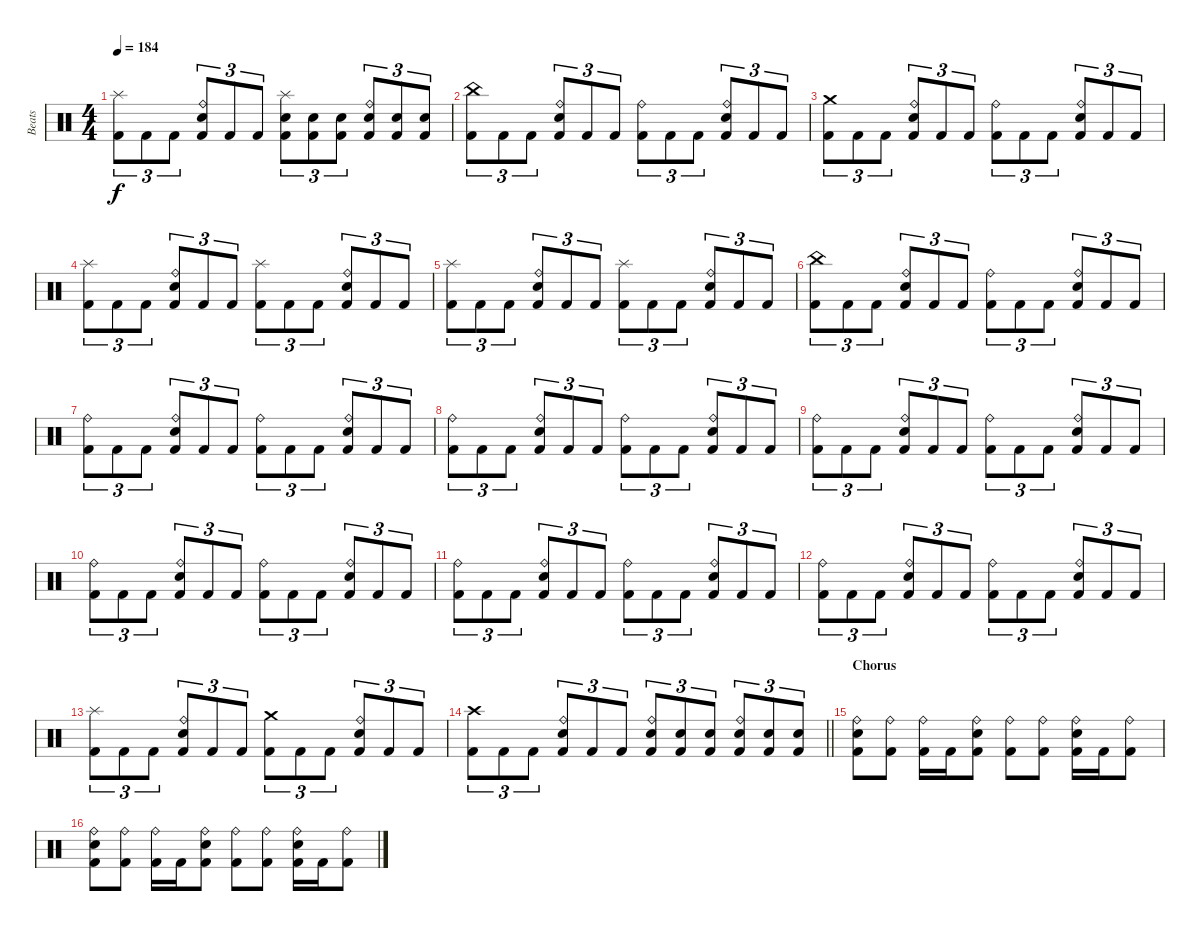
\track ("Beats" "Beats") {instrument percussion}
\staff {score}
\articulation defaults
\ts (4 4)
\tempo 184
\clef neutral
\ks c
("Splash (hit)" "Kick (hit) 2").8{tu (3 2) dy f} "Kick (hit) 2".8{tu (3 2)} "Kick (hit) 2".8{tu (3 2)} ("Ride (bell)" "Electric Snare (hit)" "Kick (hit) 2").8{tu (3 2)} "Kick (hit) 2".8{tu (3 2)} "Kick (hit) 2".8{tu (3 2)} ("Splash (hit)" "Electric Snare (hit)" "Kick (hit) 2").8{tu (3 2)} ("Electric Snare (hit)" "Kick (hit) 2").8{tu (3 2)} ("Electric Snare (hit)" "Kick (hit) 2").8{tu (3 2)} ("Ride (bell)" "Electric Snare (hit)" "Kick (hit) 2").8{tu (3 2)} ("Electric Snare (hit)" "Kick (hit) 2").8{tu (3 2)} ("Electric Snare (hit)" "Kick (hit) 2").8{tu (3 2)} |
("China (hit)" "Kick (hit) 2").8{tu (3 2)} "Kick (hit) 2".8{tu (3 2)} "Kick (hit) 2".8{tu (3 2)} ("Ride (bell)" "Electric Snare (hit)" "Kick (hit) 2").8{tu (3 2)} "Kick (hit) 2".8{tu (3 2)} "Kick (hit) 2".8{tu (3 2)} ("Ride (bell)" "Kick (hit) 2").8{tu (3 2)} "Kick (hit) 2".8{tu (3 2)} "Kick (hit) 2".8{tu (3 2)} ("Ride (bell)" "Electric Snare (hit)" "Kick (hit) 2").8{tu (3 2)} "Kick (hit) 2".8{tu (3 2)} "Kick (hit) 2".8{tu (3 2)} |
("Crash medium (hit)" "Kick (hit) 2").8{tu (3 2)} "Kick (hit) 2".8{tu (3 2)} "Kick (hit) 2".8{tu (3 2)} ("Ride (bell)" "Electric Snare (hit)" "Kick (hit) 2").8{tu (3 2)} "Kick (hit) 2".8{tu (3 2)} "Kick (hit) 2".8{tu (3 2)} ("Ride (bell)" "Kick (hit) 2").8{tu (3 2)} "Kick (hit) 2".8{tu (3 2)} "Kick (hit) 2".8{tu (3 2)} ("Ride (bell)" "Electric Snare (hit)" "Kick (hit) 2").8{tu (3 2)} "Kick (hit) 2".8{tu (3 2)} "Kick (hit) 2".8{tu (3 2)} |
("Splash (hit)" "Kick (hit) 2").8{tu (3 2)} "Kick (hit) 2".8{tu (3 2)} "Kick (hit) 2".8{tu (3 2)} ("Ride (bell)" "Electric Snare (hit)" "Kick (hit) 2").8{tu (3 2)} "Kick (hit) 2".8{tu (3 2)} "Kick (hit) 2".8{tu (3 2)} ("Splash (hit)" "Kick (hit) 2").8{tu (3 2)} "Kick (hit) 2".8{tu (3 2)} "Kick (hit) 2".8{tu (3 2)} ("Ride (bell)" "Electric Snare (hit)" "Kick (hit) 2").8{tu (3 2)} "Kick (hit) 2".8{tu (3 2)} "Kick (hit) 2".8{tu (3 2)} |
("Splash (hit)" "Kick (hit) 2").8{tu (3 2)} "Kick (hit) 2".8{tu (3 2)} "Kick (hit) 2".8{tu (3 2)} ("Ride (bell)" "Electric Snare (hit)" "Kick (hit) 2").8{tu (3 2)} "Kick (hit) 2".8{tu (3 2)} "Kick (hit) 2".8{tu (3 2)} ("Splash (hit)" "Kick (hit) 2").8{tu (3 2)} "Kick (hit) 2".8{tu (3 2)} "Kick (hit) 2".8{tu (3 2)} ("Ride (bell)" "Electric Snare (hit)" "Kick (hit) 2").8{tu (3 2)} "Kick (hit) 2".8{tu (3 2)} "Kick (hit) 2".8{tu (3 2)} |
("China (hit)" "Kick (hit) 2").8{tu (3 2)} "Kick (hit) 2".8{tu (3 2)} "Kick (hit) 2".8{tu (3 2)} ("Ride (bell)" "Electric Snare (hit)" "Kick (hit) 2").8{tu (3 2)} "Kick (hit) 2".8{tu (3 2)} "Kick (hit) 2".8{tu (3 2)} ("Ride (bell)" "Kick (hit) 2").8{tu (3 2)} "Kick (hit) 2".8{tu (3 2)} "Kick (hit) 2".8{tu (3 2)} ("Ride (bell)" "Electric Snare (hit)" "Kick (hit) 2").8{tu (3 2)} "Kick (hit) 2".8{tu (3 2)} "Kick (hit) 2".8{tu (3 2)} |
("Ride (bell)" "Kick (hit) 2").8{tu (3 2)} "Kick (hit) 2".8{tu (3 2)} "Kick (hit) 2".8{tu (3 2)} ("Ride (bell)" "Electric Snare (hit)" "Kick (hit) 2").8{tu (3 2)} "Kick (hit) 2".8{tu (3 2)} "Kick (hit) 2".8{tu (3 2)} ("Ride (bell)" "Kick (hit) 2").8{tu (3 2)} "Kick (hit) 2".8{tu (3 2)} "Kick (hit) 2".8{tu (3 2)} ("Ride (bell)" "Electric Snare (hit)" "Kick (hit) 2").8{tu (3 2)} "Kick (hit) 2".8{tu (3 2)} "Kick (hit) 2".8{tu (3 2)} |
("Ride (bell)" "Kick (hit) 2").8{tu (3 2)} "Kick (hit) 2".8{tu (3 2)} "Kick (hit) 2".8{tu (3 2)} ("Ride (bell)" "Electric Snare (hit)" "Kick (hit) 2").8{tu (3 2)} "Kick (hit) 2".8{tu (3 2)} "Kick (hit) 2".8{tu (3 2)} ("Ride (bell)" "Kick (hit) 2").8{tu (3 2)} "Kick (hit) 2".8{tu (3 2)} "Kick (hit) 2".8{tu (3 2)} ("Ride (bell)" "Electric Snare (hit)" "Kick (hit) 2").8{tu (3 2)} "Kick (hit) 2".8{tu (3 2)} "Kick (hit) 2".8{tu (3 2)} |
("Ride (bell)" "Kick (hit) 2").8{tu (3 2)} "Kick (hit) 2".8{tu (3 2)} "Kick (hit) 2".8{tu (3 2)} ("Ride (bell)" "Electric Snare (hit)" "Kick (hit) 2").8{tu (3 2)} "Kick (hit) 2".8{tu (3 2)} "Kick (hit) 2".8{tu (3 2)} ("Ride (bell)" "Kick (hit) 2").8{tu (3 2)} "Kick (hit) 2".8{tu (3 2)} "Kick (hit) 2".8{tu (3 2)} ("Ride (bell)" "Electric Snare (hit)" "Kick (hit) 2").8{tu (3 2)} "Kick (hit) 2".8{tu (3 2)} "Kick (hit) 2".8{tu (3 2)} |
("Ride (bell)" "Kick (hit) 2").8{tu (3 2)} "Kick (hit) 2".8{tu (3 2)} "Kick (hit) 2".8{tu (3 2)} ("Ride (bell)" "Electric Snare (hit)" "Kick (hit) 2").8{tu (3 2)} "Kick (hit) 2".8{tu (3 2)} "Kick (hit) 2".8{tu (3 2)} ("Ride (bell)" "Kick (hit) 2").8{tu (3 2)} "Kick (hit) 2".8{tu (3 2)} "Kick (hit) 2".8{tu (3 2)} ("Ride (bell)" "Electric Snare (hit)" "Kick (hit) 2").8{tu (3 2)} "Kick (hit) 2".8{tu (3 2)} "Kick (hit) 2".8{tu (3 2)} |
("Ride (bell)" "Kick (hit) 2").8{tu (3 2)} "Kick (hit) 2".8{tu (3 2)} "Kick (hit) 2".8{tu (3 2)} ("Ride (bell)" "Electric Snare (hit)" "Kick (hit) 2").8{tu (3 2)} "Kick (hit) 2".8{tu (3 2)} "Kick (hit) 2".8{tu (3 2)} ("Ride (bell)" "Kick (hit) 2").8{tu (3 2)} "Kick (hit) 2".8{tu (3 2)} "Kick (hit) 2".8{tu (3 2)} ("Ride (bell)" "Electric Snare (hit)" "Kick (hit) 2").8{tu (3 2)} "Kick (hit) 2".8{tu (3 2)} "Kick (hit) 2".8{tu (3 2)} |
("Ride (bell)" "Kick (hit) 2").8{tu (3 2)} "Kick (hit) 2".8{tu (3 2)} "Kick (hit) 2".8{tu (3 2)} ("Ride (bell)" "Electric Snare (hit)" "Kick (hit) 2").8{tu (3 2)} "Kick (hit) 2".8{tu (3 2)} "Kick (hit) 2".8{tu (3 2)} ("Ride (bell)" "Kick (hit) 2").8{tu (3 2)} "Kick (hit) 2".8{tu (3 2)} "Kick (hit) 2".8{tu (3 2)} ("Ride (bell)" "Electric Snare (hit)" "Kick (hit) 2").8{tu (3 2)} "Kick (hit) 2".8{tu (3 2)} "Kick (hit) 2".8{tu (3 2)} |
("Splash (hit)" "Kick (hit) 2").8{tu (3 2)} "Kick (hit) 2".8{tu (3 2)} "Kick (hit) 2".8{tu (3 2)} ("Ride (bell)" "Electric Snare (hit)" "Kick (hit) 2").8{tu (3 2)} "Kick (hit) 2".8{tu (3 2)} "Kick (hit) 2".8{tu (3 2)} ("Crash medium (hit)" "Kick (hit) 2").8{tu (3 2)} "Kick (hit) 2".8{tu (3 2)} "Kick (hit) 2".8{tu (3 2)} ("Ride (bell)" "Electric Snare (hit)" "Kick (hit) 2").8{tu (3 2)} "Kick (hit) 2".8{tu (3 2)} "Kick (hit) 2".8{tu (3 2)} |
\barLineRight lightlight
("Crash high (hit)" "Kick (hit) 2").8{tu (3 2)} "Kick (hit) 2".8{tu (3 2)} "Kick (hit) 2".8{tu (3 2)} ("Ride (bell)" "Electric Snare (hit)" "Kick (hit) 2").8{tu (3 2)} "Kick (hit) 2".8{tu (3 2)} "Kick (hit) 2".8{tu (3 2)} ("Ride (bell)" "Electric Snare (hit)" "Kick (hit) 2").8{tu (3 2)} ("Electric Snare (hit)" "Kick (hit) 2").8{tu (3 2)} ("Electric Snare (hit)" "Kick (hit) 2").8{tu (3 2)} ("Ride (bell)" "Electric Snare (hit)" "Kick (hit) 2").8{tu (3 2)} ("Electric Snare (hit)" "Kick (hit) 2").8{tu (3 2)} ("Electric Snare (hit)" "Kick (hit) 2").8{tu (3 2)} |
\section ("" "Chorus")
("Ride (bell)" "Electric Snare (hit)" "Kick (hit) 2").8 ("Ride (bell)" "Kick (hit) 2").8 ("Ride (bell)" "Kick (hit) 2").16 "Kick (hit) 2".16 ("Ride (bell)" "Electric Snare (hit)" "Kick (hit) 2").8 ("Ride (bell)" "Kick (hit) 2").8 ("Ride (bell)" "Kick (hit) 2").8 ("Ride (bell)" "Electric Snare (hit)" "Kick (hit) 2").16 "Kick (hit) 2".16 ("Ride (bell)" "Kick (hit) 2").8 |
("Ride (bell)" "Electric Snare (hit)" "Kick (hit) 2").8 ("Ride (bell)" "Kick (hit) 2").8 ("Ride (bell)" "Kick (hit) 2").16 "Kick (hit) 2".16 ("Ride (bell)" "Electric Snare (hit)" "Kick (hit) 2").8 ("Ride (bell)" "Kick (hit) 2").8 ("Ride (bell)" "Kick (hit) 2").8 ("Ride (bell)" "Electric Snare (hit)" "Kick (hit) 2").16 "Kick (hit) 2".16 ("Ride (bell)" "Kick (hit) 2").8
